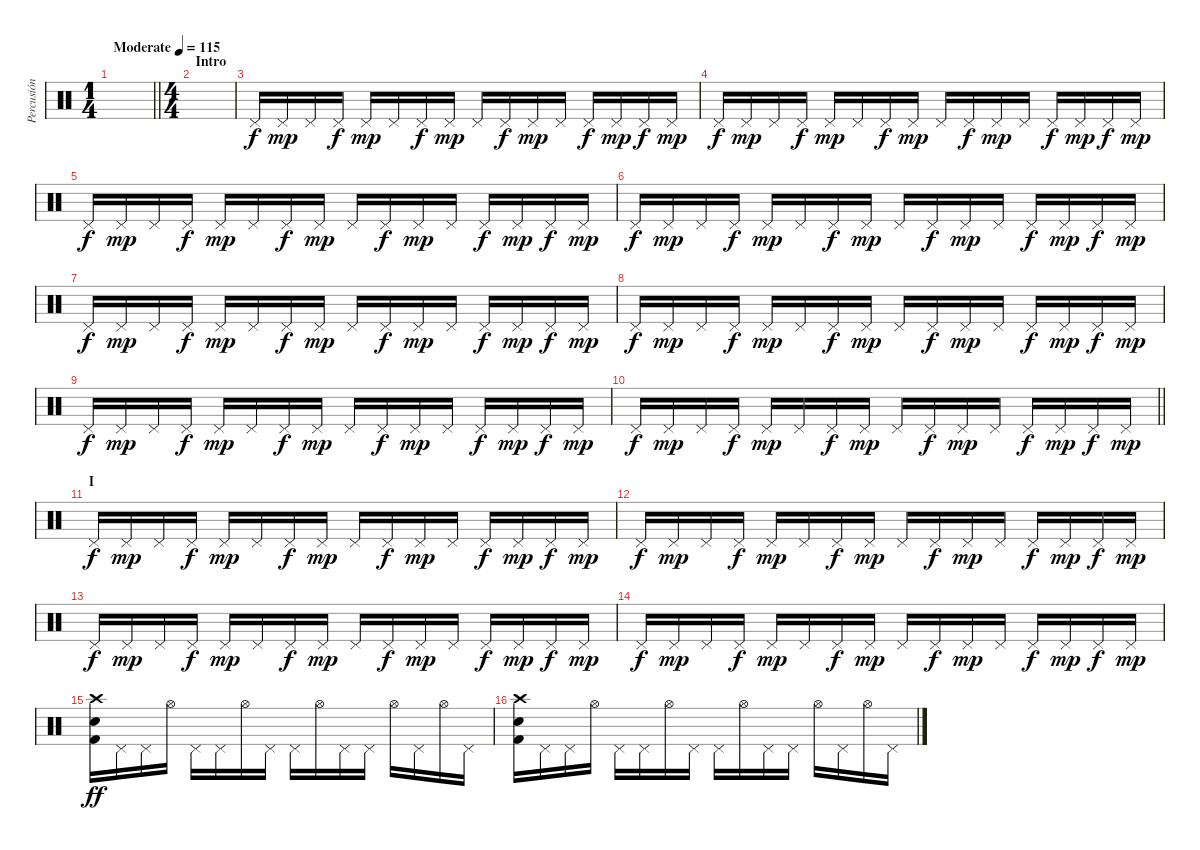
\track ("Percusión" "Percusión") {instrument percussion}
\staff {score}
\articulation defaults
\ts (1 4)
\tempo (115 "Moderate")
\clef neutral
\barLineRight lightlight
\ks c
|
\ts (4 4)
\section ("" "Intro")
|
"Pedal Hi-Hat (hit)".16 "Pedal Hi-Hat (hit)".16{dy mp} "Pedal Hi-Hat (hit)".16 "Pedal Hi-Hat (hit)".16{dy f} "Pedal Hi-Hat (hit)".16{dy mp} "Pedal Hi-Hat (hit)".16 "Pedal Hi-Hat (hit)".16{dy f} "Pedal Hi-Hat (hit)".16{dy mp} "Pedal Hi-Hat (hit)".16 "Pedal Hi-Hat (hit)".16{dy f} "Pedal Hi-Hat (hit)".16{dy mp} "Pedal Hi-Hat (hit)".16 "Pedal Hi-Hat (hit)".16{dy f} "Pedal Hi-Hat (hit)".16{dy mp} "Pedal Hi-Hat (hit)".16{dy f} "Pedal Hi-Hat (hit)".16{dy mp} |
"Pedal Hi-Hat (hit)".16{dy f} "Pedal Hi-Hat (hit)".16{dy mp} "Pedal Hi-Hat (hit)".16 "Pedal Hi-Hat (hit)".16{dy f} "Pedal Hi-Hat (hit)".16{dy mp} "Pedal Hi-Hat (hit)".16 "Pedal Hi-Hat (hit)".16{dy f} "Pedal Hi-Hat (hit)".16{dy mp} "Pedal Hi-Hat (hit)".16 "Pedal Hi-Hat (hit)".16{dy f} "Pedal Hi-Hat (hit)".16{dy mp} "Pedal Hi-Hat (hit)".16 "Pedal Hi-Hat (hit)".16{dy f} "Pedal Hi-Hat (hit)".16{dy mp} "Pedal Hi-Hat (hit)".16{dy f} "Pedal Hi-Hat (hit)".16{dy mp} |
"Pedal Hi-Hat (hit)".16{dy f} "Pedal Hi-Hat (hit)".16{dy mp} "Pedal Hi-Hat (hit)".16 "Pedal Hi-Hat (hit)".16{dy f} "Pedal Hi-Hat (hit)".16{dy mp} "Pedal Hi-Hat (hit)".16 "Pedal Hi-Hat (hit)".16{dy f} "Pedal Hi-Hat (hit)".16{dy mp} "Pedal Hi-Hat (hit)".16 "Pedal Hi-Hat (hit)".16{dy f} "Pedal Hi-Hat (hit)".16{dy mp} "Pedal Hi-Hat (hit)".16 "Pedal Hi-Hat (hit)".16{dy f} "Pedal Hi-Hat (hit)".16{dy mp} "Pedal Hi-Hat (hit)".16{dy f} "Pedal Hi-Hat (hit)".16{dy mp} |
"Pedal Hi-Hat (hit)".16{dy f} "Pedal Hi-Hat (hit)".16{dy mp} "Pedal Hi-Hat (hit)".16 "Pedal Hi-Hat (hit)".16{dy f} "Pedal Hi-Hat (hit)".16{dy mp} "Pedal Hi-Hat (hit)".16 "Pedal Hi-Hat (hit)".16{dy f} "Pedal Hi-Hat (hit)".16{dy mp} "Pedal Hi-Hat (hit)".16 "Pedal Hi-Hat (hit)".16{dy f} "Pedal Hi-Hat (hit)".16{dy mp} "Pedal Hi-Hat (hit)".16 "Pedal Hi-Hat (hit)".16{dy f} "Pedal Hi-Hat (hit)".16{dy mp} "Pedal Hi-Hat (hit)".16{dy f} "Pedal Hi-Hat (hit)".16{dy mp} |
"Pedal Hi-Hat (hit)".16{dy f} "Pedal Hi-Hat (hit)".16{dy mp} "Pedal Hi-Hat (hit)".16 "Pedal Hi-Hat (hit)".16{dy f} "Pedal Hi-Hat (hit)".16{dy mp} "Pedal Hi-Hat (hit)".16 "Pedal Hi-Hat (hit)".16{dy f} "Pedal Hi-Hat (hit)".16{dy mp} "Pedal Hi-Hat (hit)".16 "Pedal Hi-Hat (hit)".16{dy f} "Pedal Hi-Hat (hit)".16{dy mp} "Pedal Hi-Hat (hit)".16 "Pedal Hi-Hat (hit)".16{dy f} "Pedal Hi-Hat (hit)".16{dy mp} "Pedal Hi-Hat (hit)".16{dy f} "Pedal Hi-Hat (hit)".16{dy mp} |
"Pedal Hi-Hat (hit)".16{dy f} "Pedal Hi-Hat (hit)".16{dy mp} "Pedal Hi-Hat (hit)".16 "Pedal Hi-Hat (hit)".16{dy f} "Pedal Hi-Hat (hit)".16{dy mp} "Pedal Hi-Hat (hit)".16 "Pedal Hi-Hat (hit)".16{dy f} "Pedal Hi-Hat (hit)".16{dy mp} "Pedal Hi-Hat (hit)".16 "Pedal Hi-Hat (hit)".16{dy f} "Pedal Hi-Hat (hit)".16{dy mp} "Pedal Hi-Hat (hit)".16 "Pedal Hi-Hat (hit)".16{dy f} "Pedal Hi-Hat (hit)".16{dy mp} "Pedal Hi-Hat (hit)".16{dy f} "Pedal Hi-Hat (hit)".16{dy mp} |
"Pedal Hi-Hat (hit)".16{dy f} "Pedal Hi-Hat (hit)".16{dy mp} "Pedal Hi-Hat (hit)".16 "Pedal Hi-Hat (hit)".16{dy f} "Pedal Hi-Hat (hit)".16{dy mp} "Pedal Hi-Hat (hit)".16 "Pedal Hi-Hat (hit)".16{dy f} "Pedal Hi-Hat (hit)".16{dy mp} "Pedal Hi-Hat (hit)".16 "Pedal Hi-Hat (hit)".16{dy f} "Pedal Hi-Hat (hit)".16{dy mp} "Pedal Hi-Hat (hit)".16 "Pedal Hi-Hat (hit)".16{dy f} "Pedal Hi-Hat (hit)".16{dy mp} "Pedal Hi-Hat (hit)".16{dy f} "Pedal Hi-Hat (hit)".16{dy mp} |
\barLineRight lightlight "Pedal Hi-Hat (hit)".16{dy f} "Pedal Hi-Hat (hit)".16{dy mp} "Pedal Hi-Hat (hit)".16 "Pedal Hi-Hat (hit)".16{dy f} "Pedal Hi-Hat (hit)".16{dy mp} "Pedal Hi-Hat (hit)".16 "Pedal Hi-Hat (hit)".16{dy f} "Pedal Hi-Hat (hit)".16{dy mp} "Pedal Hi-Hat (hit)".16 "Pedal Hi-Hat (hit)".16{dy f} "Pedal Hi-Hat (hit)".16{dy mp} "Pedal Hi-Hat (hit)".16 "Pedal Hi-Hat (hit)".16{dy f} "Pedal Hi-Hat (hit)".16{dy mp} "Pedal Hi-Hat (hit)".16{dy f} "Pedal Hi-Hat (hit)".16{dy mp}
|
\section ("" "I")
"Pedal Hi-Hat (hit)".16{dy f} "Pedal Hi-Hat (hit)".16{dy mp} "Pedal Hi-Hat (hit)".16 "Pedal Hi-Hat (hit)".16{dy f} "Pedal Hi-Hat (hit)".16{dy mp} "Pedal Hi-Hat (hit)".16 "Pedal Hi-Hat (hit)".16{dy f} "Pedal Hi-Hat (hit)".16{dy mp} "Pedal Hi-Hat (hit)".16 "Pedal Hi-Hat (hit)".16{dy f} "Pedal Hi-Hat (hit)".16{dy mp} "Pedal Hi-Hat (hit)".16 "Pedal Hi-Hat (hit)".16{dy f} "Pedal Hi-Hat (hit)".16{dy mp} "Pedal Hi-Hat (hit)".16{dy f} "Pedal Hi-Hat (hit)".16{dy mp} |
"Pedal Hi-Hat (hit)".16{dy f} "Pedal Hi-Hat (hit)".16{dy mp} "Pedal Hi-Hat (hit)".16 "Pedal Hi-Hat (hit)".16{dy f} "Pedal Hi-Hat (hit)".16{dy mp} "Pedal Hi-Hat (hit)".16 "Pedal Hi-Hat (hit)".16{dy f} "Pedal Hi-Hat (hit)".16{dy mp} "Pedal Hi-Hat (hit)".16 "Pedal Hi-Hat (hit)".16{dy f} "Pedal Hi-Hat (hit)".16{dy mp} "Pedal Hi-Hat (hit)".16 "Pedal Hi-Hat (hit)".16{dy f} "Pedal Hi-Hat (hit)".16{dy mp} "Pedal Hi-Hat (hit)".16{dy f} "Pedal Hi-Hat (hit)".16{dy mp} |
"Pedal Hi-Hat (hit)".16{dy f} "Pedal Hi-Hat (hit)".16{dy mp} "Pedal Hi-Hat (hit)".16 "Pedal Hi-Hat (hit)".16{dy f} "Pedal Hi-Hat (hit)".16{dy mp} "Pedal Hi-Hat (hit)".16 "Pedal Hi-Hat (hit)".16{dy f} "Pedal Hi-Hat (hit)".16{dy mp} "Pedal Hi-Hat (hit)".16 "Pedal Hi-Hat (hit)".16{dy f} "Pedal Hi-Hat (hit)".16{dy mp} "Pedal Hi-Hat (hit)".16 "Pedal Hi-Hat (hit)".16{dy f} "Pedal Hi-Hat (hit)".16{dy mp} "Pedal Hi-Hat (hit)".16{dy f} "Pedal Hi-Hat (hit)".16{dy mp} |
"Pedal Hi-Hat (hit)".16{dy f} "Pedal Hi-Hat (hit)".16{dy mp} "Pedal Hi-Hat (hit)".16 "Pedal Hi-Hat (hit)".16{dy f} "Pedal Hi-Hat (hit)".16{dy mp} "Pedal Hi-Hat (hit)".16 "Pedal Hi-Hat (hit)".16{dy f} "Pedal Hi-Hat (hit)".16{dy mp} "Pedal Hi-Hat (hit)".16 "Pedal Hi-Hat (hit)".16{dy f} "Pedal Hi-Hat (hit)".16{dy mp} "Pedal Hi-Hat (hit)".16 "Pedal Hi-Hat (hit)".16{dy f} "Pedal Hi-Hat (hit)".16{dy mp} "Pedal Hi-Hat (hit)".16{dy f} "Pedal Hi-Hat (hit)".16{dy mp} |
("Crash high (hit)" "Snare (hit) 2" "Kick (hit) 2").16{dy ff} "Pedal Hi-Hat (hit)".16 "Pedal Hi-Hat (hit)".16 "Hi-Hat (open)".16 "Pedal Hi-Hat (hit)".16 "Pedal Hi-Hat (hit)".16 "Hi-Hat (open)".16 "Pedal Hi-Hat (hit)".16 "Pedal Hi-Hat (hit)".16 "Hi-Hat (open)".16 "Pedal Hi-Hat (hit)".16 "Pedal Hi-Hat (hit)".16 "Hi-Hat (open)".16 "Pedal Hi-Hat (hit)".16 "Hi-Hat (open)".16 "Pedal Hi-Hat (hit)".16 |
("Crash high (hit)" "Snare (hit) 2" "Kick (hit) 2").16 "Pedal Hi-Hat (hit)".16 "Pedal Hi-Hat (hit)".16 "Hi-Hat (open)".16 "Pedal Hi-Hat (hit)".16 "Pedal Hi-Hat (hit)".16 "Hi-Hat (open)".16 "Pedal Hi-Hat (hit)".16 "Pedal Hi-Hat (hit)".16 "Hi-Hat (open)".16 "Pedal Hi-Hat (hit)".16 "Pedal Hi-Hat (hit)".16 "Hi-Hat (open)".16 "Pedal Hi-Hat (hit)".16 "Hi-Hat (open)".16 "Pedal Hi-Hat (hit)".16
